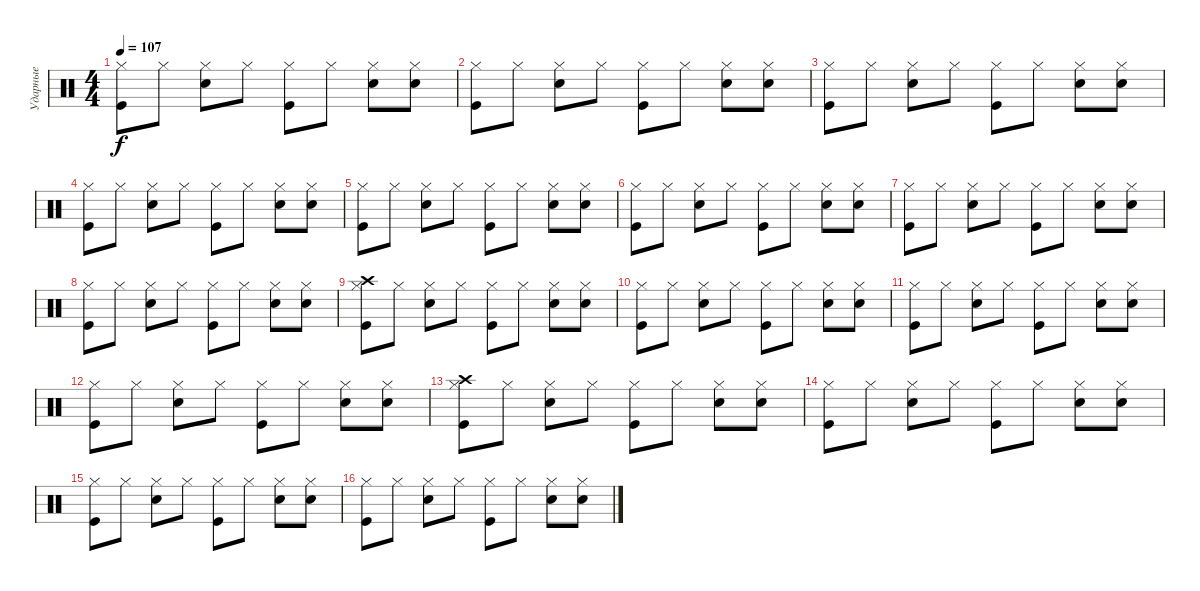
\track ("Ударные" "Ударные") {instrument percussion}
\staff {score}
\articulation defaults
\ts (4 4)
\tempo 107
\clef neutral
\ks c
("Hi-Hat (closed)" "Kick (hit)").8{dy f} "Hi-Hat (closed)".8 ("Hi-Hat (closed)" "Electric Snare (hit)").8 "Hi-Hat (closed)".8 ("Hi-Hat (closed)" "Kick (hit)").8 "Hi-Hat (closed)".8 ("Hi-Hat (closed)" "Electric Snare (hit)").8 ("Hi-Hat (closed)" "Electric Snare (hit)").8 |
("Hi-Hat (closed)" "Kick (hit)").8 "Hi-Hat (closed)".8 ("Hi-Hat (closed)" "Electric Snare (hit)").8 "Hi-Hat (closed)".8 ("Hi-Hat (closed)" "Kick (hit)").8 "Hi-Hat (closed)".8 ("Hi-Hat (closed)" "Electric Snare (hit)").8 ("Hi-Hat (closed)" "Electric Snare (hit)").8 |
("Hi-Hat (closed)" "Kick (hit)").8 "Hi-Hat (closed)".8 ("Hi-Hat (closed)" "Electric Snare (hit)").8 "Hi-Hat (closed)".8 ("Hi-Hat (closed)" "Kick (hit)").8 "Hi-Hat (closed)".8 ("Hi-Hat (closed)" "Electric Snare (hit)").8 ("Hi-Hat (closed)" "Electric Snare (hit)").8 |
("Hi-Hat (closed)" "Kick (hit)").8 "Hi-Hat (closed)".8 ("Hi-Hat (closed)" "Electric Snare (hit)").8 "Hi-Hat (closed)".8 ("Hi-Hat (closed)" "Kick (hit)").8 "Hi-Hat (closed)".8 ("Hi-Hat (closed)" "Electric Snare (hit)").8 ("Hi-Hat (closed)" "Electric Snare (hit)").8 |
("Hi-Hat (closed)" "Kick (hit)").8 "Hi-Hat (closed)".8 ("Hi-Hat (closed)" "Electric Snare (hit)").8 "Hi-Hat (closed)".8 ("Hi-Hat (closed)" "Kick (hit)").8 "Hi-Hat (closed)".8 ("Hi-Hat (closed)" "Electric Snare (hit)").8 ("Hi-Hat (closed)" "Electric Snare (hit)").8 |
("Hi-Hat (closed)" "Kick (hit)").8 "Hi-Hat (closed)".8 ("Hi-Hat (closed)" "Electric Snare (hit)").8 "Hi-Hat (closed)".8 ("Hi-Hat (closed)" "Kick (hit)").8 "Hi-Hat (closed)".8 ("Hi-Hat (closed)" "Electric Snare (hit)").8 ("Hi-Hat (closed)" "Electric Snare (hit)").8 |
("Hi-Hat (closed)" "Kick (hit)").8 "Hi-Hat (closed)".8 ("Hi-Hat (closed)" "Electric Snare (hit)").8 "Hi-Hat (closed)".8 ("Hi-Hat (closed)" "Kick (hit)").8 "Hi-Hat (closed)".8 ("Hi-Hat (closed)" "Electric Snare (hit)").8 ("Hi-Hat (closed)" "Electric Snare (hit)").8 |
("Hi-Hat (closed)" "Kick (hit)").8 "Hi-Hat (closed)".8 ("Hi-Hat (closed)" "Electric Snare (hit)").8 "Hi-Hat (closed)".8 ("Hi-Hat (closed)" "Kick (hit)").8 "Hi-Hat (closed)".8 ("Hi-Hat (closed)" "Electric Snare (hit)").8 ("Hi-Hat (closed)" "Electric Snare (hit)").8 |
("Crash high (hit)" "Hi-Hat (closed)" "Kick (hit)").8 "Hi-Hat (closed)".8 ("Hi-Hat (closed)" "Electric Snare (hit)").8 "Hi-Hat (closed)".8 ("Hi-Hat (closed)" "Kick (hit)").8 "Hi-Hat (closed)".8 ("Hi-Hat (closed)" "Electric Snare (hit)").8 ("Hi-Hat (closed)" "Electric Snare (hit)").8 |
("Hi-Hat (closed)" "Kick (hit)").8 "Hi-Hat (closed)".8 ("Hi-Hat (closed)" "Electric Snare (hit)").8 "Hi-Hat (closed)".8 ("Hi-Hat (closed)" "Kick (hit)").8 "Hi-Hat (closed)".8 ("Hi-Hat (closed)" "Electric Snare (hit)").8 ("Hi-Hat (closed)" "Electric Snare (hit)").8 |
("Hi-Hat (closed)" "Kick (hit)").8 "Hi-Hat (closed)".8 ("Hi-Hat (closed)" "Electric Snare (hit)").8 "Hi-Hat (closed)".8 ("Hi-Hat (closed)" "Kick (hit)").8 "Hi-Hat (closed)".8 ("Hi-Hat (closed)" "Electric Snare (hit)").8 ("Hi-Hat (closed)" "Electric Snare (hit)").8 |
("Hi-Hat (closed)" "Kick (hit)").8 "Hi-Hat (closed)".8 ("Hi-Hat (closed)" "Electric Snare (hit)").8 "Hi-Hat (closed)".8 ("Hi-Hat (closed)" "Kick (hit)").8 "Hi-Hat (closed)".8 ("Hi-Hat (closed)" "Electric Snare (hit)").8 ("Hi-Hat (closed)" "Electric Snare (hit)").8 |
("Crash high (hit)" "Hi-Hat (closed)" "Kick (hit)").8 "Hi-Hat (closed)".8 ("Hi-Hat (closed)" "Electric Snare (hit)").8 "Hi-Hat (closed)".8 ("Hi-Hat (closed)" "Kick (hit)").8 "Hi-Hat (closed)".8 ("Hi-Hat (closed)" "Electric Snare (hit)").8 ("Hi-Hat (closed)" "Electric Snare (hit)").8 |
("Hi-Hat (closed)" "Kick (hit)").8 "Hi-Hat (closed)".8 ("Hi-Hat (closed)" "Electric Snare (hit)").8 "Hi-Hat (closed)".8 ("Hi-Hat (closed)" "Kick (hit)").8 "Hi-Hat (closed)".8 ("Hi-Hat (closed)" "Electric Snare (hit)").8 ("Hi-Hat (closed)" "Electric Snare (hit)").8 |
("Hi-Hat (closed)" "Kick (hit)").8 "Hi-Hat (closed)".8 ("Hi-Hat (closed)" "Electric Snare (hit)").8 "Hi-Hat (closed)".8 ("Hi-Hat (closed)" "Kick (hit)").8 "Hi-Hat (closed)".8 ("Hi-Hat (closed)" "Electric Snare (hit)").8 ("Hi-Hat (closed)" "Electric Snare (hit)").8 |
("Hi-Hat (closed)" "Kick (hit)").8 "Hi-Hat (closed)".8 ("Hi-Hat (closed)" "Electric Snare (hit)").8 "Hi-Hat (closed)".8 ("Hi-Hat (closed)" "Kick (hit)").8 "Hi-Hat (closed)".8 ("Hi-Hat (closed)" "Electric Snare (hit)").8 ("Hi-Hat (closed)" "Electric Snare (hit)").8
